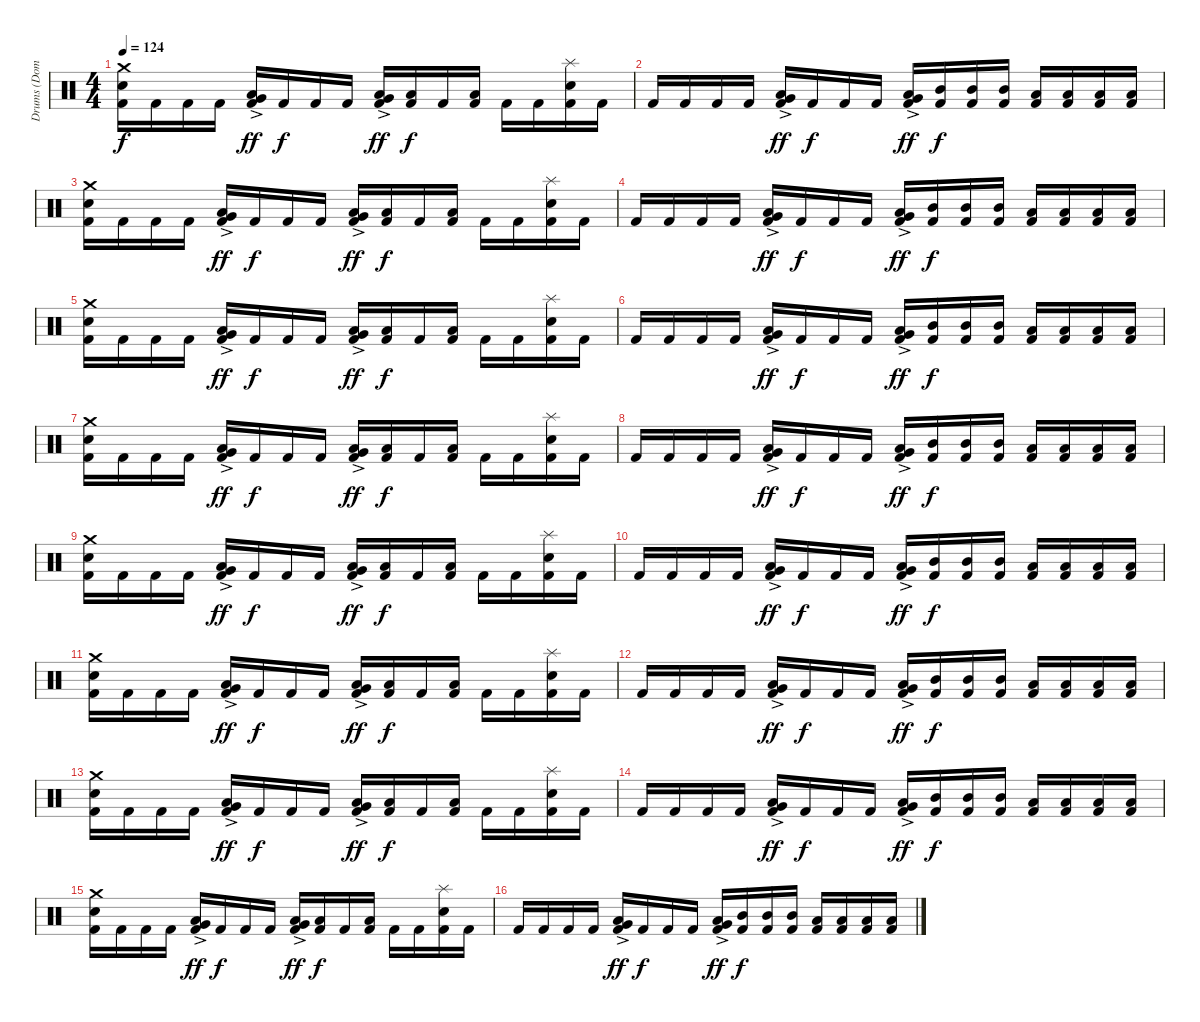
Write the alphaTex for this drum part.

\track ("Drums (Dominik)" "Drums (Dom") {instrument percussion}
\staff {score}
\articulation defaults
\ts (4 4)
\tempo 124
\clef neutral
\ks c
("Crash medium (hit)" "Electric Snare (hit)" "Kick (hit) 2").16{dy f} "Kick (hit) 2".16 "Kick (hit) 2".16 "Kick (hit) 2".16 ("Very Low Tom (hit)"{ac} "Low Floor Tom (hit)"{ac} "Kick (hit) 2").16{dy ff} "Kick (hit) 2".16{dy f} "Kick (hit) 2".16 "Kick (hit) 2".16 ("Very Low Tom (hit)"{ac} "Low Floor Tom (hit)"{ac} "Kick (hit) 2").16{dy ff} ("Low Tom (hit)" "Kick (hit) 2").16{dy f} "Kick (hit) 2".16 ("Low Floor Tom (hit)" "Kick (hit) 2").16 "Kick (hit) 2".16 "Kick (hit) 2".16 ("Splash (hit)" "Electric Snare (hit)" "Kick (hit) 2").16 "Kick (hit) 2".16 |
"Kick (hit) 2".16 "Kick (hit) 2".16 "Kick (hit) 2".16 "Kick (hit) 2".16 ("Very Low Tom (hit)"{ac} "Low Floor Tom (hit)"{ac} "Kick (hit) 2").16{dy ff} "Kick (hit) 2".16{dy f} "Kick (hit) 2".16 "Kick (hit) 2".16 ("Very Low Tom (hit)"{ac} "Low Floor Tom (hit)"{ac} "Kick (hit) 2").16{dy ff} ("Mid Tom (hit)" "Kick (hit) 2").16{dy f} ("Mid Tom (hit)" "Kick (hit) 2").16 ("Mid Tom (hit)" "Kick (hit) 2").16 ("Low Tom (hit)" "Kick (hit) 2").16 ("Low Tom (hit)" "Kick (hit) 2").16 ("Low Tom (hit)" "Kick (hit) 2").16 ("Low Tom (hit)" "Kick (hit) 2").16 |
("Crash medium (hit)" "Electric Snare (hit)" "Kick (hit) 2").16 "Kick (hit) 2".16 "Kick (hit) 2".16 "Kick (hit) 2".16 ("Very Low Tom (hit)"{ac} "Low Floor Tom (hit)"{ac} "Kick (hit) 2").16{dy ff} "Kick (hit) 2".16{dy f} "Kick (hit) 2".16 "Kick (hit) 2".16 ("Very Low Tom (hit)"{ac} "Low Floor Tom (hit)"{ac} "Kick (hit) 2").16{dy ff} ("Low Tom (hit)" "Kick (hit) 2").16{dy f} "Kick (hit) 2".16 ("Low Floor Tom (hit)" "Kick (hit) 2").16 "Kick (hit) 2".16 "Kick (hit) 2".16 ("Splash (hit)" "Electric Snare (hit)" "Kick (hit) 2").16 "Kick (hit) 2".16 |
"Kick (hit) 2".16 "Kick (hit) 2".16 "Kick (hit) 2".16 "Kick (hit) 2".16 ("Very Low Tom (hit)"{ac} "Low Floor Tom (hit)"{ac} "Kick (hit) 2").16{dy ff} "Kick (hit) 2".16{dy f} "Kick (hit) 2".16 "Kick (hit) 2".16 ("Very Low Tom (hit)"{ac} "Low Floor Tom (hit)"{ac} "Kick (hit) 2").16{dy ff} ("Mid Tom (hit)" "Kick (hit) 2").16{dy f} ("Mid Tom (hit)" "Kick (hit) 2").16 ("Mid Tom (hit)" "Kick (hit) 2").16 ("Low Tom (hit)" "Kick (hit) 2").16 ("Low Tom (hit)" "Kick (hit) 2").16 ("Low Tom (hit)" "Kick (hit) 2").16 ("Low Tom (hit)" "Kick (hit) 2").16 |
("Crash medium (hit)" "Electric Snare (hit)" "Kick (hit) 2").16 "Kick (hit) 2".16 "Kick (hit) 2".16 "Kick (hit) 2".16 ("Very Low Tom (hit)"{ac} "Low Floor Tom (hit)"{ac} "Kick (hit) 2").16{dy ff} "Kick (hit) 2".16{dy f} "Kick (hit) 2".16 "Kick (hit) 2".16 ("Very Low Tom (hit)"{ac} "Low Floor Tom (hit)"{ac} "Kick (hit) 2").16{dy ff} ("Low Tom (hit)" "Kick (hit) 2").16{dy f} "Kick (hit) 2".16 ("Low Floor Tom (hit)" "Kick (hit) 2").16 "Kick (hit) 2".16 "Kick (hit) 2".16 ("Splash (hit)" "Electric Snare (hit)" "Kick (hit) 2").16 "Kick (hit) 2".16 |
"Kick (hit) 2".16 "Kick (hit) 2".16 "Kick (hit) 2".16 "Kick (hit) 2".16 ("Very Low Tom (hit)"{ac} "Low Floor Tom (hit)"{ac} "Kick (hit) 2").16{dy ff} "Kick (hit) 2".16{dy f} "Kick (hit) 2".16 "Kick (hit) 2".16 ("Very Low Tom (hit)"{ac} "Low Floor Tom (hit)"{ac} "Kick (hit) 2").16{dy ff} ("Mid Tom (hit)" "Kick (hit) 2").16{dy f} ("Mid Tom (hit)" "Kick (hit) 2").16 ("Mid Tom (hit)" "Kick (hit) 2").16 ("Low Tom (hit)" "Kick (hit) 2").16 ("Low Tom (hit)" "Kick (hit) 2").16 ("Low Tom (hit)" "Kick (hit) 2").16 ("Low Tom (hit)" "Kick (hit) 2").16 |
("Crash medium (hit)" "Electric Snare (hit)" "Kick (hit) 2").16 "Kick (hit) 2".16 "Kick (hit) 2".16 "Kick (hit) 2".16 ("Very Low Tom (hit)"{ac} "Low Floor Tom (hit)"{ac} "Kick (hit) 2").16{dy ff} "Kick (hit) 2".16{dy f} "Kick (hit) 2".16 "Kick (hit) 2".16 ("Very Low Tom (hit)"{ac} "Low Floor Tom (hit)"{ac} "Kick (hit) 2").16{dy ff} ("Low Tom (hit)" "Kick (hit) 2").16{dy f} "Kick (hit) 2".16 ("Low Floor Tom (hit)" "Kick (hit) 2").16 "Kick (hit) 2".16 "Kick (hit) 2".16 ("Splash (hit)" "Electric Snare (hit)" "Kick (hit) 2").16 "Kick (hit) 2".16 |
"Kick (hit) 2".16 "Kick (hit) 2".16 "Kick (hit) 2".16 "Kick (hit) 2".16 ("Very Low Tom (hit)"{ac} "Low Floor Tom (hit)"{ac} "Kick (hit) 2").16{dy ff} "Kick (hit) 2".16{dy f} "Kick (hit) 2".16 "Kick (hit) 2".16 ("Very Low Tom (hit)"{ac} "Low Floor Tom (hit)"{ac} "Kick (hit) 2").16{dy ff} ("Mid Tom (hit)" "Kick (hit) 2").16{dy f} ("Mid Tom (hit)" "Kick (hit) 2").16 ("Mid Tom (hit)" "Kick (hit) 2").16 ("Low Tom (hit)" "Kick (hit) 2").16 ("Low Tom (hit)" "Kick (hit) 2").16 ("Low Tom (hit)" "Kick (hit) 2").16 ("Low Tom (hit)" "Kick (hit) 2").16 |
("Crash medium (hit)" "Electric Snare (hit)" "Kick (hit) 2").16 "Kick (hit) 2".16 "Kick (hit) 2".16 "Kick (hit) 2".16 ("Very Low Tom (hit)"{ac} "Low Floor Tom (hit)"{ac} "Kick (hit) 2").16{dy ff} "Kick (hit) 2".16{dy f} "Kick (hit) 2".16 "Kick (hit) 2".16 ("Very Low Tom (hit)"{ac} "Low Floor Tom (hit)"{ac} "Kick (hit) 2").16{dy ff} ("Low Tom (hit)" "Kick (hit) 2").16{dy f} "Kick (hit) 2".16 ("Low Floor Tom (hit)" "Kick (hit) 2").16 "Kick (hit) 2".16 "Kick (hit) 2".16 ("Splash (hit)" "Electric Snare (hit)" "Kick (hit) 2").16 "Kick (hit) 2".16 |
"Kick (hit) 2".16 "Kick (hit) 2".16 "Kick (hit) 2".16 "Kick (hit) 2".16 ("Very Low Tom (hit)"{ac} "Low Floor Tom (hit)"{ac} "Kick (hit) 2").16{dy ff} "Kick (hit) 2".16{dy f} "Kick (hit) 2".16 "Kick (hit) 2".16 ("Very Low Tom (hit)"{ac} "Low Floor Tom (hit)"{ac} "Kick (hit) 2").16{dy ff} ("Mid Tom (hit)" "Kick (hit) 2").16{dy f} ("Mid Tom (hit)" "Kick (hit) 2").16 ("Mid Tom (hit)" "Kick (hit) 2").16 ("Low Tom (hit)" "Kick (hit) 2").16 ("Low Tom (hit)" "Kick (hit) 2").16 ("Low Tom (hit)" "Kick (hit) 2").16 ("Low Tom (hit)" "Kick (hit) 2").16 |
("Crash medium (hit)" "Electric Snare (hit)" "Kick (hit) 2").16 "Kick (hit) 2".16 "Kick (hit) 2".16 "Kick (hit) 2".16 ("Very Low Tom (hit)"{ac} "Low Floor Tom (hit)"{ac} "Kick (hit) 2").16{dy ff} "Kick (hit) 2".16{dy f} "Kick (hit) 2".16 "Kick (hit) 2".16 ("Very Low Tom (hit)"{ac} "Low Floor Tom (hit)"{ac} "Kick (hit) 2").16{dy ff} ("Low Tom (hit)" "Kick (hit) 2").16{dy f} "Kick (hit) 2".16 ("Low Floor Tom (hit)" "Kick (hit) 2").16 "Kick (hit) 2".16 "Kick (hit) 2".16 ("Splash (hit)" "Electric Snare (hit)" "Kick (hit) 2").16 "Kick (hit) 2".16 |
"Kick (hit) 2".16 "Kick (hit) 2".16 "Kick (hit) 2".16 "Kick (hit) 2".16 ("Very Low Tom (hit)"{ac} "Low Floor Tom (hit)"{ac} "Kick (hit) 2").16{dy ff} "Kick (hit) 2".16{dy f} "Kick (hit) 2".16 "Kick (hit) 2".16 ("Very Low Tom (hit)"{ac} "Low Floor Tom (hit)"{ac} "Kick (hit) 2").16{dy ff} ("Mid Tom (hit)" "Kick (hit) 2").16{dy f} ("Mid Tom (hit)" "Kick (hit) 2").16 ("Mid Tom (hit)" "Kick (hit) 2").16 ("Low Tom (hit)" "Kick (hit) 2").16 ("Low Tom (hit)" "Kick (hit) 2").16 ("Low Tom (hit)" "Kick (hit) 2").16 ("Low Tom (hit)" "Kick (hit) 2").16 |
("Crash medium (hit)" "Electric Snare (hit)" "Kick (hit) 2").16 "Kick (hit) 2".16 "Kick (hit) 2".16 "Kick (hit) 2".16 ("Very Low Tom (hit)"{ac} "Low Floor Tom (hit)"{ac} "Kick (hit) 2").16{dy ff} "Kick (hit) 2".16{dy f} "Kick (hit) 2".16 "Kick (hit) 2".16 ("Very Low Tom (hit)"{ac} "Low Floor Tom (hit)"{ac} "Kick (hit) 2").16{dy ff} ("Low Tom (hit)" "Kick (hit) 2").16{dy f} "Kick (hit) 2".16 ("Low Floor Tom (hit)" "Kick (hit) 2").16 "Kick (hit) 2".16 "Kick (hit) 2".16 ("Splash (hit)" "Electric Snare (hit)" "Kick (hit) 2").16 "Kick (hit) 2".16 |
"Kick (hit) 2".16 "Kick (hit) 2".16 "Kick (hit) 2".16 "Kick (hit) 2".16 ("Very Low Tom (hit)"{ac} "Low Floor Tom (hit)"{ac} "Kick (hit) 2").16{dy ff} "Kick (hit) 2".16{dy f} "Kick (hit) 2".16 "Kick (hit) 2".16 ("Very Low Tom (hit)"{ac} "Low Floor Tom (hit)"{ac} "Kick (hit) 2").16{dy ff} ("Mid Tom (hit)" "Kick (hit) 2").16{dy f} ("Mid Tom (hit)" "Kick (hit) 2").16 ("Mid Tom (hit)" "Kick (hit) 2").16 ("Low Tom (hit)" "Kick (hit) 2").16 ("Low Tom (hit)" "Kick (hit) 2").16 ("Low Tom (hit)" "Kick (hit) 2").16 ("Low Tom (hit)" "Kick (hit) 2").16 |
("Crash medium (hit)" "Electric Snare (hit)" "Kick (hit) 2").16 "Kick (hit) 2".16 "Kick (hit) 2".16 "Kick (hit) 2".16 ("Very Low Tom (hit)"{ac} "Low Floor Tom (hit)"{ac} "Kick (hit) 2").16{dy ff} "Kick (hit) 2".16{dy f} "Kick (hit) 2".16 "Kick (hit) 2".16 ("Very Low Tom (hit)"{ac} "Low Floor Tom (hit)"{ac} "Kick (hit) 2").16{dy ff} ("Low Tom (hit)" "Kick (hit) 2").16{dy f} "Kick (hit) 2".16 ("Low Floor Tom (hit)" "Kick (hit) 2").16 "Kick (hit) 2".16 "Kick (hit) 2".16 ("Splash (hit)" "Electric Snare (hit)" "Kick (hit) 2").16 "Kick (hit) 2".16 |
"Kick (hit) 2".16 "Kick (hit) 2".16 "Kick (hit) 2".16 "Kick (hit) 2".16 ("Very Low Tom (hit)"{ac} "Low Floor Tom (hit)"{ac} "Kick (hit) 2").16{dy ff} "Kick (hit) 2".16{dy f} "Kick (hit) 2".16 "Kick (hit) 2".16 ("Very Low Tom (hit)"{ac} "Low Floor Tom (hit)"{ac} "Kick (hit) 2").16{dy ff} ("Mid Tom (hit)" "Kick (hit) 2").16{dy f} ("Mid Tom (hit)" "Kick (hit) 2").16 ("Mid Tom (hit)" "Kick (hit) 2").16 ("Low Tom (hit)" "Kick (hit) 2").16 ("Low Tom (hit)" "Kick (hit) 2").16 ("Low Tom (hit)" "Kick (hit) 2").16 ("Low Tom (hit)" "Kick (hit) 2").16
